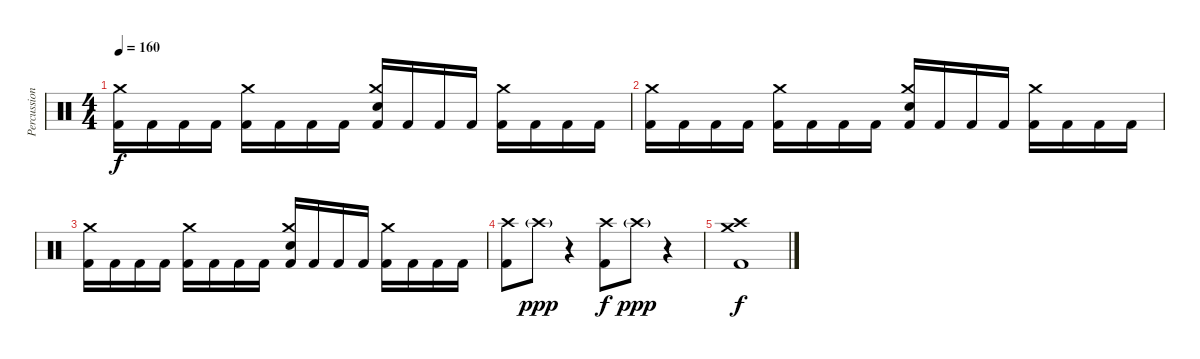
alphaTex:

\track ("Percussion" "Percussion") {instrument percussion}
\staff {score}
\articulation defaults
\ts (4 4)
\tempo 160
\clef neutral
\ks c
("Kick (hit) 2" "Crash medium (hit)").16{dy f} "Kick (hit) 2".16 "Kick (hit) 2".16 "Kick (hit) 2".16 ("Kick (hit) 2" "Crash medium (hit)").16 "Kick (hit) 2".16 "Kick (hit) 2".16 "Kick (hit) 2".16 ("Kick (hit) 2" "Electric Snare (hit)" "Crash medium (hit)").16 "Kick (hit) 2".16 "Kick (hit) 2".16 "Kick (hit) 2".16 ("Kick (hit) 2" "Crash medium (hit)").16 "Kick (hit) 2".16 "Kick (hit) 2".16 "Kick (hit) 2".16 |
("Kick (hit) 2" "Crash medium (hit)").16 "Kick (hit) 2".16 "Kick (hit) 2".16 "Kick (hit) 2".16 ("Kick (hit) 2" "Crash medium (hit)").16 "Kick (hit) 2".16 "Kick (hit) 2".16 "Kick (hit) 2".16 ("Kick (hit) 2" "Electric Snare (hit)" "Crash medium (hit)").16 "Kick (hit) 2".16 "Kick (hit) 2".16 "Kick (hit) 2".16 ("Kick (hit) 2" "Crash medium (hit)").16 "Kick (hit) 2".16 "Kick (hit) 2".16 "Kick (hit) 2".16 |
("Kick (hit) 2" "Crash medium (hit)").16 "Kick (hit) 2".16 "Kick (hit) 2".16 "Kick (hit) 2".16 ("Kick (hit) 2" "Crash medium (hit)").16 "Kick (hit) 2".16 "Kick (hit) 2".16 "Kick (hit) 2".16 ("Kick (hit) 2" "Electric Snare (hit)" "Crash medium (hit)").16 "Kick (hit) 2".16 "Kick (hit) 2".16 "Kick (hit) 2".16 ("Kick (hit) 2" "Crash medium (hit)").16 "Kick (hit) 2".16 "Kick (hit) 2".16 "Kick (hit) 2".16 |
("Kick (hit) 2" "Crash high (hit)").8 "Crash high (hit)"{g}.8{dy ppp} r.4 ("Kick (hit) 2" "Crash high (hit)").8{dy f} "Crash high (hit)"{g}.8{dy ppp} r.4 |
("Kick (hit) 2" "Crash high (hit)" "Crash medium (hit)").1{dy f}
